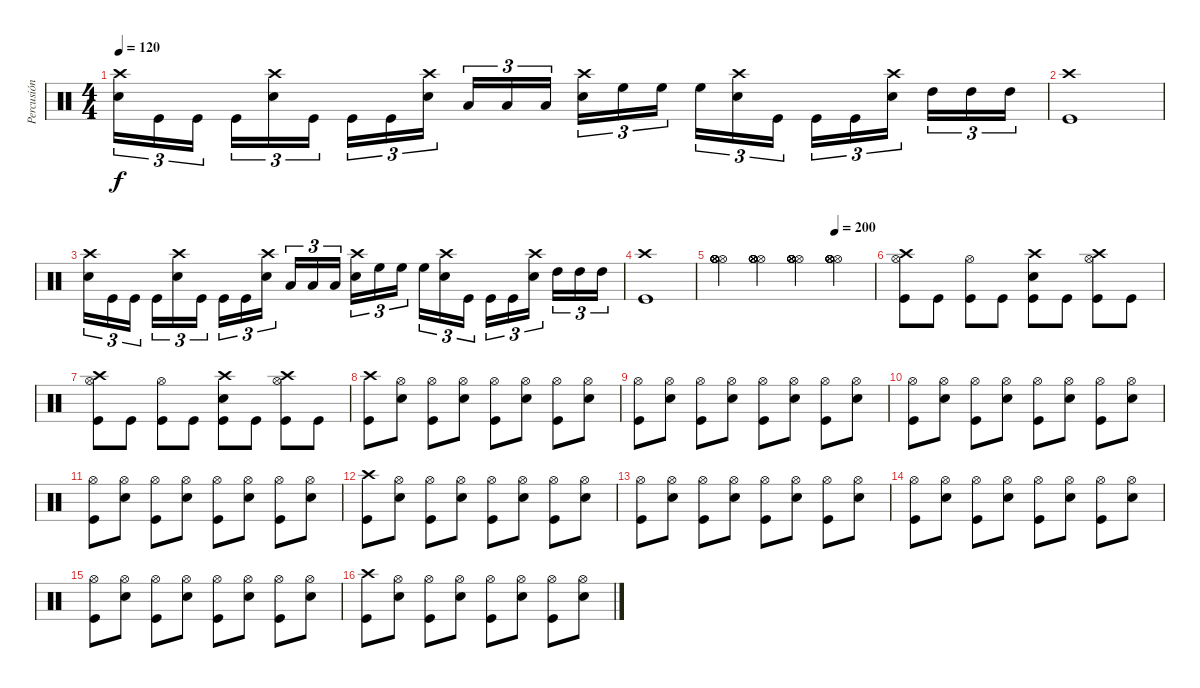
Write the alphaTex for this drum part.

\track ("Percusión" "Percusión") {instrument percussion}
\staff {score}
\articulation defaults
\ts (4 4)
\tempo 120
\clef neutral
\ks c
("Crash high (hit)" "Snare (hit) 2").16{tu (3 2) dy f} "Kick (hit)".16{tu (3 2)} "Kick (hit)".16{tu (3 2)} "Kick (hit)".16{tu (3 2)} ("Crash high (hit)" "Snare (hit) 2").16{tu (3 2)} "Kick (hit)".16{tu (3 2)} "Kick (hit)".16{tu (3 2)} "Kick (hit)".16{tu (3 2)} ("Crash high (hit)" "Snare (hit) 2").16{tu (3 2)} "Low Floor Tom (hit)".16{tu (3 2)} "Low Floor Tom (hit)".16{tu (3 2)} "Low Floor Tom (hit)".16{tu (3 2)} ("Crash high (hit)" "Snare (hit) 2").16{tu (3 2)} "High Floor Tom (hit)".16{tu (3 2)} "High Floor Tom (hit)".16{tu (3 2)} "High Floor Tom (hit)".16{tu (3 2)} ("Crash high (hit)" "Snare (hit) 2").16{tu (3 2)} "Kick (hit)".16{tu (3 2)} "Kick (hit)".16{tu (3 2)} "Kick (hit)".16{tu (3 2)} ("Snare (hit) 2" "Crash high (hit)").16{tu (3 2)} "High Tom (hit)".16{tu (3 2)} "High Tom (hit)".16{tu (3 2)} "High Tom (hit)".16{tu (3 2)} |
("Kick (hit)" "Crash high (hit)").1 |
("Crash high (hit)" "Snare (hit) 2").16{tu (3 2)} "Kick (hit)".16{tu (3 2)} "Kick (hit)".16{tu (3 2)} "Kick (hit)".16{tu (3 2)} ("Crash high (hit)" "Snare (hit) 2").16{tu (3 2)} "Kick (hit)".16{tu (3 2)} "Kick (hit)".16{tu (3 2)} "Kick (hit)".16{tu (3 2)} ("Crash high (hit)" "Snare (hit) 2").16{tu (3 2)} "Low Floor Tom (hit)".16{tu (3 2)} "Low Floor Tom (hit)".16{tu (3 2)} "Low Floor Tom (hit)".16{tu (3 2)} ("Crash high (hit)" "Snare (hit) 2").16{tu (3 2)} "High Floor Tom (hit)".16{tu (3 2)} "High Floor Tom (hit)".16{tu (3 2)} "High Floor Tom (hit)".16{tu (3 2)} ("Crash high (hit)" "Snare (hit) 2").16{tu (3 2)} "Kick (hit)".16{tu (3 2)} "Kick (hit)".16{tu (3 2)} "Kick (hit)".16{tu (3 2)} ("Snare (hit) 2" "Crash high (hit)").16{tu (3 2)} "High Tom (hit)".16{tu (3 2)} "High Tom (hit)".16{tu (3 2)} "High Tom (hit)".16{tu (3 2)} |
("Kick (hit)" "Crash high (hit)").1 |
\tempo (200 0.75)
("Hi-Hat (open)" "Hi-Hat (open)" "Hi-Hat (open)" "Hi-Hat (open)" "Hi-Hat (open)" "Hi-Hat (open)").4 ("Hi-Hat (open)" "Hi-Hat (open)" "Hi-Hat (open)" "Hi-Hat (open)" "Hi-Hat (open)" "Hi-Hat (open)").4 ("Hi-Hat (open)" "Hi-Hat (open)" "Hi-Hat (open)" "Hi-Hat (open)" "Hi-Hat (open)" "Hi-Hat (open)").4 ("Hi-Hat (open)" "Hi-Hat (open)" "Hi-Hat (open)" "Hi-Hat (open)" "Hi-Hat (open)" "Hi-Hat (open)").4 |
("Crash high (hit)" "Hi-Hat (open)" "Kick (hit)").8 "Kick (hit)".8 ("Hi-Hat (open)" "Kick (hit)").8 "Kick (hit)".8 ("Crash high (hit)" "Snare (hit) 2" "Kick (hit)").8 "Kick (hit)".8 ("Crash high (hit)" "Hi-Hat (open)" "Kick (hit)").8 "Kick (hit)".8 |
("Crash high (hit)" "Hi-Hat (open)" "Kick (hit)").8 "Kick (hit)".8 ("Hi-Hat (open)" "Kick (hit)").8 "Kick (hit)".8 ("Crash high (hit)" "Snare (hit) 2" "Kick (hit)").8 "Kick (hit)".8 ("Crash high (hit)" "Hi-Hat (open)" "Kick (hit)").8 "Kick (hit)".8 |
("Crash high (hit)" "Kick (hit)").8 ("Hi-Hat (open)" "Snare (hit) 2").8 ("Hi-Hat (open)" "Kick (hit)").8 ("Hi-Hat (open)" "Snare (hit) 2").8 ("Hi-Hat (open)" "Kick (hit)").8 ("Hi-Hat (open)" "Snare (hit) 2").8 ("Hi-Hat (open)" "Kick (hit)").8 ("Hi-Hat (open)" "Snare (hit) 2").8 |
("Hi-Hat (open)" "Kick (hit)").8 ("Hi-Hat (open)" "Snare (hit) 2").8 ("Hi-Hat (open)" "Kick (hit)").8 ("Hi-Hat (open)" "Snare (hit) 2").8 ("Hi-Hat (open)" "Kick (hit)").8 ("Hi-Hat (open)" "Snare (hit) 2").8 ("Hi-Hat (open)" "Kick (hit)").8 ("Hi-Hat (open)" "Snare (hit) 2").8 |
("Hi-Hat (open)" "Kick (hit)").8 ("Hi-Hat (open)" "Snare (hit) 2").8 ("Hi-Hat (open)" "Kick (hit)").8 ("Hi-Hat (open)" "Snare (hit) 2").8 ("Hi-Hat (open)" "Kick (hit)").8 ("Hi-Hat (open)" "Snare (hit) 2").8 ("Hi-Hat (open)" "Kick (hit)").8 ("Hi-Hat (open)" "Snare (hit) 2").8 |
("Hi-Hat (open)" "Kick (hit)").8 ("Hi-Hat (open)" "Snare (hit) 2").8 ("Hi-Hat (open)" "Kick (hit)").8 ("Hi-Hat (open)" "Snare (hit) 2").8 ("Hi-Hat (open)" "Kick (hit)").8 ("Hi-Hat (open)" "Snare (hit) 2").8 ("Hi-Hat (open)" "Kick (hit)").8 ("Hi-Hat (open)" "Snare (hit) 2").8 |
("Crash high (hit)" "Kick (hit)").8 ("Hi-Hat (open)" "Snare (hit) 2").8 ("Hi-Hat (open)" "Kick (hit)").8 ("Hi-Hat (open)" "Snare (hit) 2").8 ("Hi-Hat (open)" "Kick (hit)").8 ("Hi-Hat (open)" "Snare (hit) 2").8 ("Hi-Hat (open)" "Kick (hit)").8 ("Hi-Hat (open)" "Snare (hit) 2").8 |
("Hi-Hat (open)" "Kick (hit)").8 ("Hi-Hat (open)" "Snare (hit) 2").8 ("Hi-Hat (open)" "Kick (hit)").8 ("Hi-Hat (open)" "Snare (hit) 2").8 ("Hi-Hat (open)" "Kick (hit)").8 ("Hi-Hat (open)" "Snare (hit) 2").8 ("Hi-Hat (open)" "Kick (hit)").8 ("Hi-Hat (open)" "Snare (hit) 2").8 |
("Hi-Hat (open)" "Kick (hit)").8 ("Hi-Hat (open)" "Snare (hit) 2").8 ("Hi-Hat (open)" "Kick (hit)").8 ("Hi-Hat (open)" "Snare (hit) 2").8 ("Hi-Hat (open)" "Kick (hit)").8 ("Hi-Hat (open)" "Snare (hit) 2").8 ("Hi-Hat (open)" "Kick (hit)").8 ("Hi-Hat (open)" "Snare (hit) 2").8 |
("Hi-Hat (open)" "Kick (hit)").8 ("Hi-Hat (open)" "Snare (hit) 2").8 ("Hi-Hat (open)" "Kick (hit)").8 ("Hi-Hat (open)" "Snare (hit) 2").8 ("Hi-Hat (open)" "Kick (hit)").8 ("Hi-Hat (open)" "Snare (hit) 2").8 ("Hi-Hat (open)" "Kick (hit)").8 ("Hi-Hat (open)" "Snare (hit) 2").8 |
("Crash high (hit)" "Kick (hit)").8 ("Hi-Hat (open)" "Snare (hit) 2").8 ("Hi-Hat (open)" "Kick (hit)").8 ("Hi-Hat (open)" "Snare (hit) 2").8 ("Hi-Hat (open)" "Kick (hit)").8 ("Hi-Hat (open)" "Snare (hit) 2").8 ("Hi-Hat (open)" "Kick (hit)").8 ("Hi-Hat (open)" "Snare (hit) 2").8
